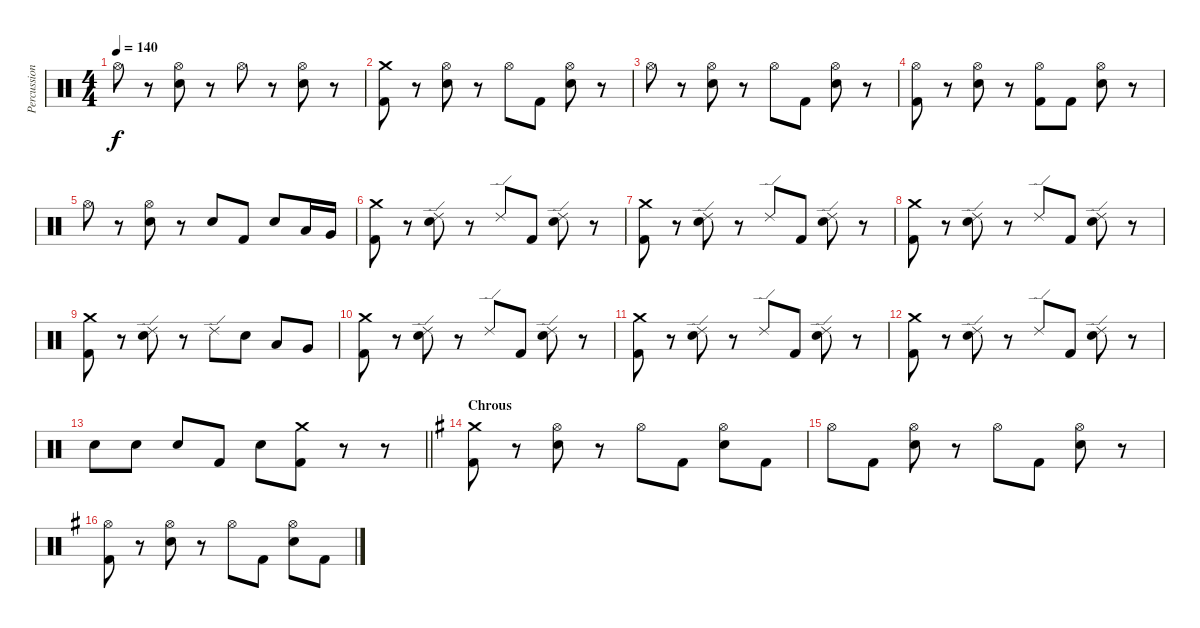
\track ("Percussion" "Percussion") {instrument percussion}
\staff {score}
\articulation defaults
\ts (4 4)
\tempo 140
\clef neutral
\ks c "Hi-Hat (open)".8{dy f}
r.8 ("Hi-Hat (open)" "Electric Snare (hit)").8 r.8 "Hi-Hat (open)".8 r.8 ("Hi-Hat (open)" "Electric Snare (hit)").8 r.8 |
("Crash medium (hit)" "Kick (hit) 2").8 r.8 ("Hi-Hat (open)" "Electric Snare (hit)").8 r.8 "Hi-Hat (open)".8 "Kick (hit) 2".8 ("Hi-Hat (open)" "Electric Snare (hit)").8 r.8 |
"Hi-Hat (open)".8 r.8 ("Hi-Hat (open)" "Electric Snare (hit)").8 r.8 "Hi-Hat (open)".8 "Kick (hit) 2".8 ("Hi-Hat (open)" "Electric Snare (hit)").8 r.8 |
("Hi-Hat (open)" "Kick (hit) 2").8 r.8 ("Hi-Hat (open)" "Electric Snare (hit)").8 r.8 ("Hi-Hat (open)" "Kick (hit) 2").8 "Kick (hit) 2".8 ("Hi-Hat (open)" "Electric Snare (hit)").8 r.8 |
"Hi-Hat (open)".8 r.8 ("Hi-Hat (open)" "Electric Snare (hit)").8 r.8 "Electric Snare (hit)".8 "Kick (hit) 2".8 "Electric Snare (hit)".8 "Low Tom (hit)".16 "Very Low Tom (hit)".16 |
("Crash medium (hit)" "Kick (hit) 2").8 r.8 ("Ride (edge) 2" "Electric Snare (hit)").8 r.8 "Ride (edge) 2".8 "Kick (hit) 2".8 ("Ride (edge) 2" "Electric Snare (hit)").8 r.8 |
("Crash medium (hit)" "Kick (hit) 2").8 r.8 ("Ride (edge) 2" "Electric Snare (hit)").8 r.8 "Ride (edge) 2".8 "Kick (hit) 2".8 ("Ride (edge) 2" "Electric Snare (hit)").8 r.8 |
("Crash medium (hit)" "Kick (hit) 2").8 r.8 ("Ride (edge) 2" "Electric Snare (hit)").8 r.8 "Ride (edge) 2".8 "Kick (hit) 2".8 ("Ride (edge) 2" "Electric Snare (hit)").8 r.8 |
("Crash medium (hit)" "Kick (hit) 2").8 r.8 ("Ride (edge) 2" "Electric Snare (hit)").8 r.8 "Ride (edge) 2".8 "Electric Snare (hit)".8 "Low Tom (hit)".8 "Very Low Tom (hit)".8 |
("Crash medium (hit)" "Kick (hit) 2").8 r.8 ("Ride (edge) 2" "Electric Snare (hit)").8 r.8 "Ride (edge) 2".8 "Kick (hit) 2".8 ("Ride (edge) 2" "Electric Snare (hit)").8 r.8 |
("Crash medium (hit)" "Kick (hit) 2").8 r.8 ("Ride (edge) 2" "Electric Snare (hit)").8 r.8 "Ride (edge) 2".8 "Kick (hit) 2".8 ("Ride (edge) 2" "Electric Snare (hit)").8 r.8 |
("Crash medium (hit)" "Kick (hit) 2").8 r.8 ("Ride (edge) 2" "Electric Snare (hit)").8 r.8 "Ride (edge) 2".8 "Kick (hit) 2".8 ("Ride (edge) 2" "Electric Snare (hit)").8 r.8 |
\barLineRight lightlight "Electric Snare (hit)".8 "Electric Snare (hit)".8 "Electric Snare (hit)".8 "Kick (hit) 2".8 "Electric Snare (hit)".8
("Crash medium (hit)" "Kick (hit) 2").8 r.8 r.8 |
\section ("" "Chrous")
\ks g
("Crash medium (hit)" "Kick (hit) 2").8 r.8 ("Hi-Hat (open)" "Electric Snare (hit)").8 r.8 "Hi-Hat (open)".8 "Kick (hit) 2".8 ("Hi-Hat (open)" "Electric Snare (hit)").8 "Kick (hit) 2".8 |
"Hi-Hat (open)".8 "Kick (hit) 2".8 ("Hi-Hat (open)" "Electric Snare (hit)").8 r.8 "Hi-Hat (open)".8 "Kick (hit) 2".8 ("Hi-Hat (open)" "Electric Snare (hit)").8 r.8 |
("Hi-Hat (open)" "Kick (hit) 2").8 r.8 ("Hi-Hat (open)" "Electric Snare (hit)").8 r.8 "Hi-Hat (open)".8 "Kick (hit) 2".8 ("Hi-Hat (open)" "Electric Snare (hit)").8 "Kick (hit) 2".8
